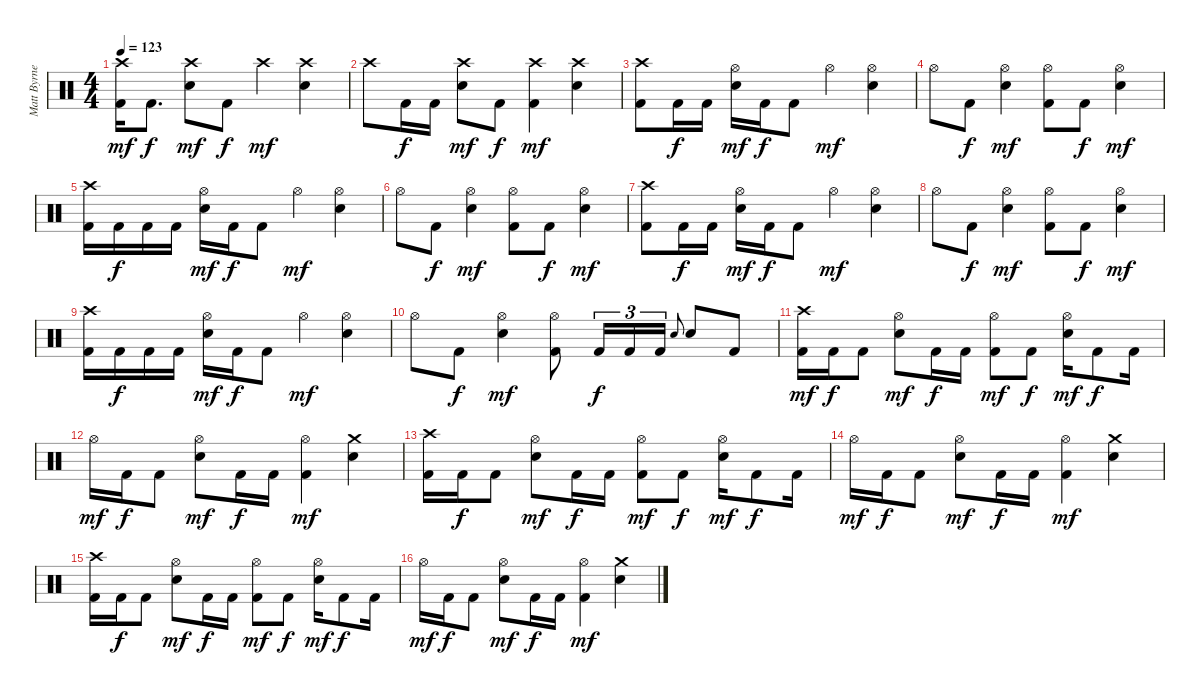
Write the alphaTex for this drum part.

\track ("Matt Byrne" "Matt Byrne") {instrument percussion}
\staff {score}
\articulation defaults
\ts (4 4)
\tempo 123
\clef neutral
\ks c
("Crash high (hit)" "Kick (hit) 2").16{dy mf} "Kick (hit) 2".8{d dy f} ("Crash high (hit)" "Electric Snare (hit)").8{dy mf} "Kick (hit) 2".8{dy f} "Crash high (hit)".4{dy mf} ("Crash high (hit)" "Electric Snare (hit)").4 |
"Crash high (hit)".8 "Kick (hit) 2".16{dy f} "Kick (hit) 2".16 ("Crash high (hit)" "Electric Snare (hit)").8{dy mf} "Kick (hit) 2".8{dy f} ("Crash high (hit)" "Kick (hit) 2").4{dy mf} ("Crash high (hit)" "Electric Snare (hit)").4 |
("Crash high (hit)" "Kick (hit) 2").8 "Kick (hit) 2".16{dy f} "Kick (hit) 2".16 ("Hi-Hat (open)" "Electric Snare (hit)").16{dy mf} "Kick (hit) 2".16{dy f} "Kick (hit) 2".8 "Hi-Hat (open)".4{dy mf} ("Hi-Hat (open)" "Electric Snare (hit)").4 |
"Hi-Hat (open)".8 "Kick (hit) 2".8{dy f} ("Hi-Hat (open)" "Electric Snare (hit)").4{dy mf} ("Hi-Hat (open)" "Kick (hit) 2").8 "Kick (hit) 2".8{dy f} ("Hi-Hat (open)" "Electric Snare (hit)").4{dy mf} |
("Crash high (hit)" "Kick (hit) 2").16 "Kick (hit) 2".16{dy f} "Kick (hit) 2".16 "Kick (hit) 2".16 ("Hi-Hat (open)" "Electric Snare (hit)").16{dy mf} "Kick (hit) 2".16{dy f} "Kick (hit) 2".8 "Hi-Hat (open)".4{dy mf} ("Hi-Hat (open)" "Electric Snare (hit)").4 |
"Hi-Hat (open)".8 "Kick (hit) 2".8{dy f} ("Hi-Hat (open)" "Electric Snare (hit)").4{dy mf} ("Hi-Hat (open)" "Kick (hit) 2").8 "Kick (hit) 2".8{dy f} ("Hi-Hat (open)" "Electric Snare (hit)").4{dy mf} |
("Crash high (hit)" "Kick (hit) 2").8 "Kick (hit) 2".16{dy f} "Kick (hit) 2".16 ("Hi-Hat (open)" "Electric Snare (hit)").16{dy mf} "Kick (hit) 2".16{dy f} "Kick (hit) 2".8 "Hi-Hat (open)".4{dy mf} ("Hi-Hat (open)" "Electric Snare (hit)").4 |
"Hi-Hat (open)".8 "Kick (hit) 2".8{dy f} ("Hi-Hat (open)" "Electric Snare (hit)").4{dy mf} ("Hi-Hat (open)" "Kick (hit) 2").8 "Kick (hit) 2".8{dy f} ("Hi-Hat (open)" "Electric Snare (hit)").4{dy mf} |
("Crash high (hit)" "Kick (hit) 2").16 "Kick (hit) 2".16{dy f} "Kick (hit) 2".16 "Kick (hit) 2".16 ("Hi-Hat (open)" "Electric Snare (hit)").16{dy mf} "Kick (hit) 2".16{dy f} "Kick (hit) 2".8 "Hi-Hat (open)".4{dy mf} ("Hi-Hat (open)" "Electric Snare (hit)").4 |
"Hi-Hat (open)".8 "Kick (hit) 2".8{dy f} ("Hi-Hat (open)" "Electric Snare (hit)").4{dy mf} ("Hi-Hat (open)" "Kick (hit) 2").8 "Kick (hit) 2".16{tu (3 2) dy f} "Kick (hit) 2".16{tu (3 2)} "Kick (hit) 2".16{tu (3 2)} "Electric Snare (hit)".8{gr onbeat} "Electric Snare (hit)".8 "Kick (hit) 2".8 |
("Crash high (hit)" "Kick (hit) 2").16{dy mf} "Kick (hit) 2".16{dy f} "Kick (hit) 2".8 ("Hi-Hat (open)" "Electric Snare (hit)").8{dy mf} "Kick (hit) 2".16{dy f} "Kick (hit) 2".16 ("Hi-Hat (open)" "Kick (hit) 2").8{dy mf} "Kick (hit) 2".8{dy f} ("Hi-Hat (open)" "Electric Snare (hit)").16{dy mf} "Kick (hit) 2".8{dy f} "Kick (hit) 2".16 |
"Hi-Hat (open)".16{dy mf} "Kick (hit) 2".16{dy f} "Kick (hit) 2".8 ("Hi-Hat (open)" "Electric Snare (hit)").8{dy mf} "Kick (hit) 2".16{dy f} "Kick (hit) 2".16 ("Hi-Hat (open)" "Kick (hit) 2").4{dy mf} ("Crash medium (hit)" "Electric Snare (hit)").4 |
("Crash high (hit)" "Kick (hit) 2").16 "Kick (hit) 2".16{dy f} "Kick (hit) 2".8 ("Hi-Hat (open)" "Electric Snare (hit)").8{dy mf} "Kick (hit) 2".16{dy f} "Kick (hit) 2".16 ("Hi-Hat (open)" "Kick (hit) 2").8{dy mf} "Kick (hit) 2".8{dy f} ("Hi-Hat (open)" "Electric Snare (hit)").16{dy mf} "Kick (hit) 2".8{dy f} "Kick (hit) 2".16 |
"Hi-Hat (open)".16{dy mf} "Kick (hit) 2".16{dy f} "Kick (hit) 2".8 ("Hi-Hat (open)" "Electric Snare (hit)").8{dy mf} "Kick (hit) 2".16{dy f} "Kick (hit) 2".16 ("Hi-Hat (open)" "Kick (hit) 2").4{dy mf} ("Crash medium (hit)" "Electric Snare (hit)").4 |
("Crash high (hit)" "Kick (hit) 2").16 "Kick (hit) 2".16{dy f} "Kick (hit) 2".8 ("Hi-Hat (open)" "Electric Snare (hit)").8{dy mf} "Kick (hit) 2".16{dy f} "Kick (hit) 2".16 ("Hi-Hat (open)" "Kick (hit) 2").8{dy mf} "Kick (hit) 2".8{dy f} ("Hi-Hat (open)" "Electric Snare (hit)").16{dy mf} "Kick (hit) 2".8{dy f} "Kick (hit) 2".16 |
"Hi-Hat (open)".16{dy mf} "Kick (hit) 2".16{dy f} "Kick (hit) 2".8 ("Hi-Hat (open)" "Electric Snare (hit)").8{dy mf} "Kick (hit) 2".16{dy f} "Kick (hit) 2".16 ("Hi-Hat (open)" "Kick (hit) 2").4{dy mf} ("Crash medium (hit)" "Electric Snare (hit)").4
